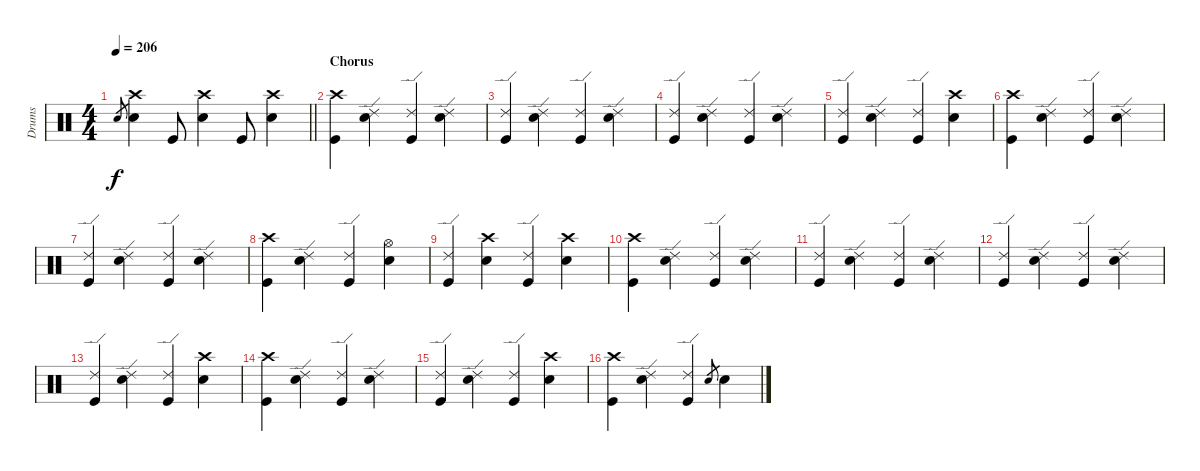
\track ("Drums" "Drums") {instrument percussion}
\staff {score}
\articulation defaults
\ts (4 4)
\tempo 206
\clef neutral
\barLineRight lightlight
\ks c "Electric Snare (hit)".8{gr dy f}
("Crash high (hit)" "Electric Snare (hit)").4 "Kick (hit)".8 ("Crash high (hit)" "Electric Snare (hit)").4 "Kick (hit)".8 ("Crash high (hit)" "Electric Snare (hit)").4 |
\section ("" "Chorus")
("Crash high (hit)" "Kick (hit)").4 ("Ride (edge) 2" "Electric Snare (hit)").4 ("Ride (edge) 2" "Kick (hit)").4 ("Ride (edge) 2" "Electric Snare (hit)").4 |
("Ride (edge) 2" "Kick (hit)").4 ("Ride (edge) 2" "Electric Snare (hit)").4 ("Ride (edge) 2" "Kick (hit)").4 ("Ride (edge) 2" "Electric Snare (hit)").4 |
("Ride (edge) 2" "Kick (hit)").4 ("Ride (edge) 2" "Electric Snare (hit)").4 ("Ride (edge) 2" "Kick (hit)").4 ("Ride (edge) 2" "Electric Snare (hit)").4 |
("Ride (edge) 2" "Kick (hit)").4 ("Ride (edge) 2" "Electric Snare (hit)").4 ("Ride (edge) 2" "Kick (hit)").4 ("Crash high (hit)" "Electric Snare (hit)").4 |
("Crash high (hit)" "Kick (hit)").4 ("Ride (edge) 2" "Electric Snare (hit)").4 ("Ride (edge) 2" "Kick (hit)").4 ("Ride (edge) 2" "Electric Snare (hit)").4 |
("Ride (edge) 2" "Kick (hit)").4 ("Ride (edge) 2" "Electric Snare (hit)").4 ("Ride (edge) 2" "Kick (hit)").4 ("Ride (edge) 2" "Electric Snare (hit)").4 |
("Crash high (hit)" "Kick (hit)").4 ("Ride (edge) 2" "Electric Snare (hit)").4 ("Ride (edge) 2" "Kick (hit)").4 ("Hi-Hat (open)" "Electric Snare (hit)").4 |
("Ride (edge) 2" "Kick (hit)").4 ("Crash high (hit)" "Electric Snare (hit)").4 ("Ride (edge) 2" "Kick (hit)").4 ("Crash high (hit)" "Electric Snare (hit)").4 |
("Crash high (hit)" "Kick (hit)").4 ("Ride (edge) 2" "Electric Snare (hit)").4 ("Ride (edge) 2" "Kick (hit)").4 ("Ride (edge) 2" "Electric Snare (hit)").4 |
("Ride (edge) 2" "Kick (hit)").4 ("Ride (edge) 2" "Electric Snare (hit)").4 ("Ride (edge) 2" "Kick (hit)").4 ("Ride (edge) 2" "Electric Snare (hit)").4 |
("Ride (edge) 2" "Kick (hit)").4 ("Ride (edge) 2" "Electric Snare (hit)").4 ("Ride (edge) 2" "Kick (hit)").4 ("Ride (edge) 2" "Electric Snare (hit)").4 |
("Ride (edge) 2" "Kick (hit)").4 ("Ride (edge) 2" "Electric Snare (hit)").4 ("Ride (edge) 2" "Kick (hit)").4 ("Crash high (hit)" "Electric Snare (hit)").4 |
("Crash high (hit)" "Kick (hit)").4 ("Ride (edge) 2" "Electric Snare (hit)").4 ("Ride (edge) 2" "Kick (hit)").4 ("Ride (edge) 2" "Electric Snare (hit)").4 |
("Ride (edge) 2" "Kick (hit)").4 ("Ride (edge) 2" "Electric Snare (hit)").4 ("Ride (edge) 2" "Kick (hit)").4 ("Crash high (hit)" "Electric Snare (hit)").4 |
("Crash high (hit)" "Kick (hit)").4 ("Ride (edge) 2" "Electric Snare (hit)").4 ("Ride (edge) 2" "Kick (hit)").4 "Electric Snare (hit)".8{gr} "Electric Snare (hit)".4
